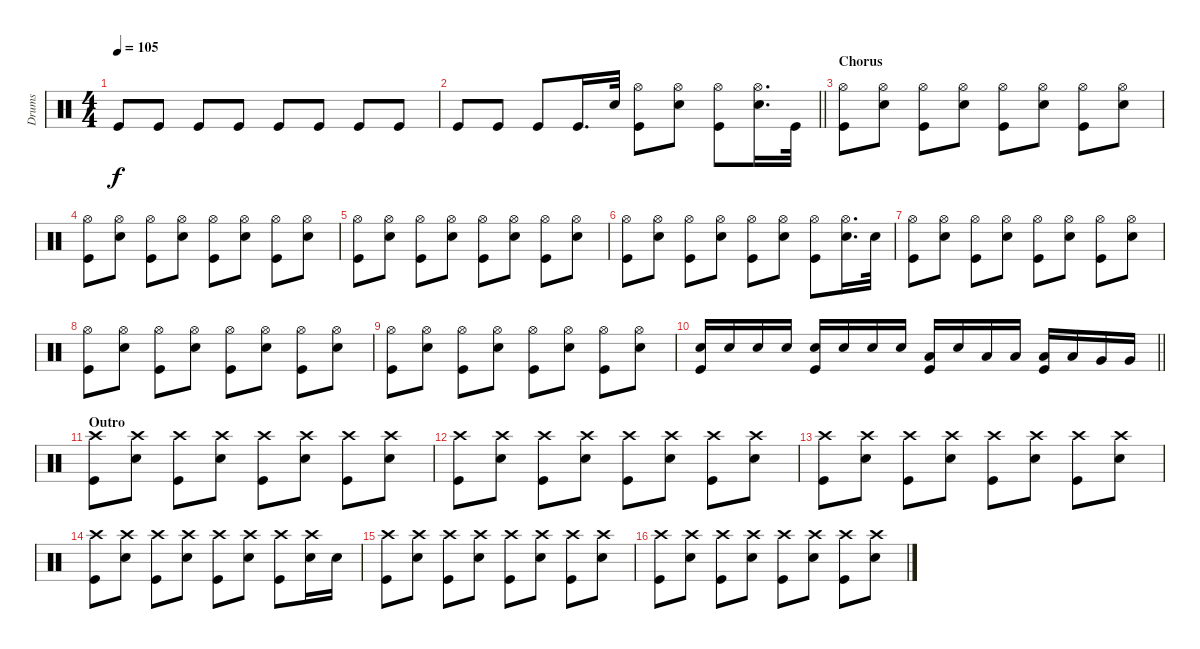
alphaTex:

\track ("Drums" "Drums") {instrument percussion}
\staff
\articulation defaults
\ts (4 4)
\tempo 105
\clef neutral
\ks c "Kick (hit)".8{dy f} "Kick (hit)".8 "Kick (hit)".8 "Kick (hit)".8 "Kick (hit)".8 "Kick (hit)".8 "Kick (hit)".8 "Kick (hit)".8
|
\barLineRight lightlight "Kick (hit)".8 "Kick (hit)".8 "Kick (hit)".8 "Kick (hit)".16{d} "Snare (hit) 2".32
("Hi-Hat (open)" "Kick (hit)").8 ("Hi-Hat (open)" "Snare (hit) 2").8 ("Hi-Hat (open)" "Kick (hit)").8 ("Hi-Hat (open)" "Snare (hit) 2").16{d} "Kick (hit)".32 |
\section ("" "Chorus")
("Hi-Hat (open)" "Kick (hit)").8 ("Hi-Hat (open)" "Snare (hit) 2").8 ("Hi-Hat (open)" "Kick (hit)").8 ("Hi-Hat (open)" "Snare (hit) 2").8 ("Hi-Hat (open)" "Kick (hit)").8 ("Hi-Hat (open)" "Snare (hit) 2").8 ("Hi-Hat (open)" "Kick (hit)").8 ("Hi-Hat (open)" "Snare (hit) 2").8 |
("Hi-Hat (open)" "Kick (hit)").8 ("Hi-Hat (open)" "Snare (hit) 2").8 ("Hi-Hat (open)" "Kick (hit)").8 ("Hi-Hat (open)" "Snare (hit) 2").8 ("Hi-Hat (open)" "Kick (hit)").8 ("Hi-Hat (open)" "Snare (hit) 2").8 ("Hi-Hat (open)" "Kick (hit)").8 ("Hi-Hat (open)" "Snare (hit) 2").8 |
("Hi-Hat (open)" "Kick (hit)").8 ("Hi-Hat (open)" "Snare (hit) 2").8 ("Hi-Hat (open)" "Kick (hit)").8 ("Hi-Hat (open)" "Snare (hit) 2").8 ("Hi-Hat (open)" "Kick (hit)").8 ("Hi-Hat (open)" "Snare (hit) 2").8 ("Hi-Hat (open)" "Kick (hit)").8 ("Hi-Hat (open)" "Snare (hit) 2").8 |
("Hi-Hat (open)" "Kick (hit)").8 ("Hi-Hat (open)" "Snare (hit) 2").8 ("Hi-Hat (open)" "Kick (hit)").8 ("Hi-Hat (open)" "Snare (hit) 2").8 ("Hi-Hat (open)" "Kick (hit)").8 ("Hi-Hat (open)" "Snare (hit) 2").8 ("Hi-Hat (open)" "Kick (hit)").8 ("Hi-Hat (open)" "Snare (hit) 2").16{d} "Snare (hit) 2".32 |
("Hi-Hat (open)" "Kick (hit)").8 ("Hi-Hat (open)" "Snare (hit) 2").8 ("Hi-Hat (open)" "Kick (hit)").8 ("Hi-Hat (open)" "Snare (hit) 2").8 ("Hi-Hat (open)" "Kick (hit)").8 ("Hi-Hat (open)" "Snare (hit) 2").8 ("Hi-Hat (open)" "Kick (hit)").8 ("Hi-Hat (open)" "Snare (hit) 2").8 |
("Hi-Hat (open)" "Kick (hit)").8 ("Hi-Hat (open)" "Snare (hit) 2").8 ("Hi-Hat (open)" "Kick (hit)").8 ("Hi-Hat (open)" "Snare (hit) 2").8 ("Hi-Hat (open)" "Kick (hit)").8 ("Hi-Hat (open)" "Snare (hit) 2").8 ("Hi-Hat (open)" "Kick (hit)").8 ("Hi-Hat (open)" "Snare (hit) 2").8 |
("Hi-Hat (open)" "Kick (hit)").8 ("Hi-Hat (open)" "Snare (hit) 2").8 ("Hi-Hat (open)" "Kick (hit)").8 ("Hi-Hat (open)" "Snare (hit) 2").8 ("Hi-Hat (open)" "Kick (hit)").8 ("Hi-Hat (open)" "Snare (hit) 2").8 ("Hi-Hat (open)" "Kick (hit)").8 ("Hi-Hat (open)" "Snare (hit) 2").8 |
\barLineRight lightlight
("Snare (hit) 2" "Kick (hit)").16 "Snare (hit) 2".16 "Snare (hit) 2".16 "Snare (hit) 2".16 ("Snare (hit) 2" "Kick (hit)").16 "Snare (hit) 2".16 "Snare (hit) 2".16 "Snare (hit) 2".16 ("Low Tom (hit)" "Kick (hit)").16 "Snare (hit) 2".16 "Low Tom (hit)".16 "Low Tom (hit)".16 ("Low Tom (hit)" "Kick (hit)").16 "Low Tom (hit)".16 "Very Low Tom (hit)".16 "Very Low Tom (hit)".16 |
\section ("" "Outro")
("Crash high (hit)" "Kick (hit)").8 ("Crash high (hit)" "Snare (hit) 2").8 ("Crash high (hit)" "Kick (hit)").8 ("Crash high (hit)" "Snare (hit) 2").8 ("Crash high (hit)" "Kick (hit)").8 ("Crash high (hit)" "Snare (hit) 2").8 ("Crash high (hit)" "Kick (hit)").8 ("Crash high (hit)" "Snare (hit) 2").8 |
("Crash high (hit)" "Kick (hit)").8 ("Crash high (hit)" "Snare (hit) 2").8 ("Crash high (hit)" "Kick (hit)").8 ("Crash high (hit)" "Snare (hit) 2").8 ("Crash high (hit)" "Kick (hit)").8 ("Crash high (hit)" "Snare (hit) 2").8 ("Crash high (hit)" "Kick (hit)").8 ("Crash high (hit)" "Snare (hit) 2").8 |
("Crash high (hit)" "Kick (hit)").8 ("Crash high (hit)" "Snare (hit) 2").8 ("Crash high (hit)" "Kick (hit)").8 ("Crash high (hit)" "Snare (hit) 2").8 ("Crash high (hit)" "Kick (hit)").8 ("Crash high (hit)" "Snare (hit) 2").8 ("Crash high (hit)" "Kick (hit)").8 ("Crash high (hit)" "Snare (hit) 2").8 |
("Crash high (hit)" "Kick (hit)").8 ("Crash high (hit)" "Snare (hit) 2").8 ("Crash high (hit)" "Kick (hit)").8 ("Crash high (hit)" "Snare (hit) 2").8 ("Crash high (hit)" "Kick (hit)").8 ("Crash high (hit)" "Snare (hit) 2").8 ("Crash high (hit)" "Kick (hit)").8 ("Crash high (hit)" "Snare (hit) 2").16 "Snare (hit) 2".16 |
("Crash high (hit)" "Kick (hit)").8 ("Crash high (hit)" "Snare (hit) 2").8 ("Crash high (hit)" "Kick (hit)").8 ("Crash high (hit)" "Snare (hit) 2").8 ("Crash high (hit)" "Kick (hit)").8 ("Crash high (hit)" "Snare (hit) 2").8 ("Crash high (hit)" "Kick (hit)").8 ("Crash high (hit)" "Snare (hit) 2").8 |
("Crash high (hit)" "Kick (hit)").8 ("Crash high (hit)" "Snare (hit) 2").8 ("Crash high (hit)" "Kick (hit)").8 ("Crash high (hit)" "Snare (hit) 2").8 ("Crash high (hit)" "Kick (hit)").8 ("Crash high (hit)" "Snare (hit) 2").8 ("Crash high (hit)" "Kick (hit)").8 ("Crash high (hit)" "Snare (hit) 2").8
